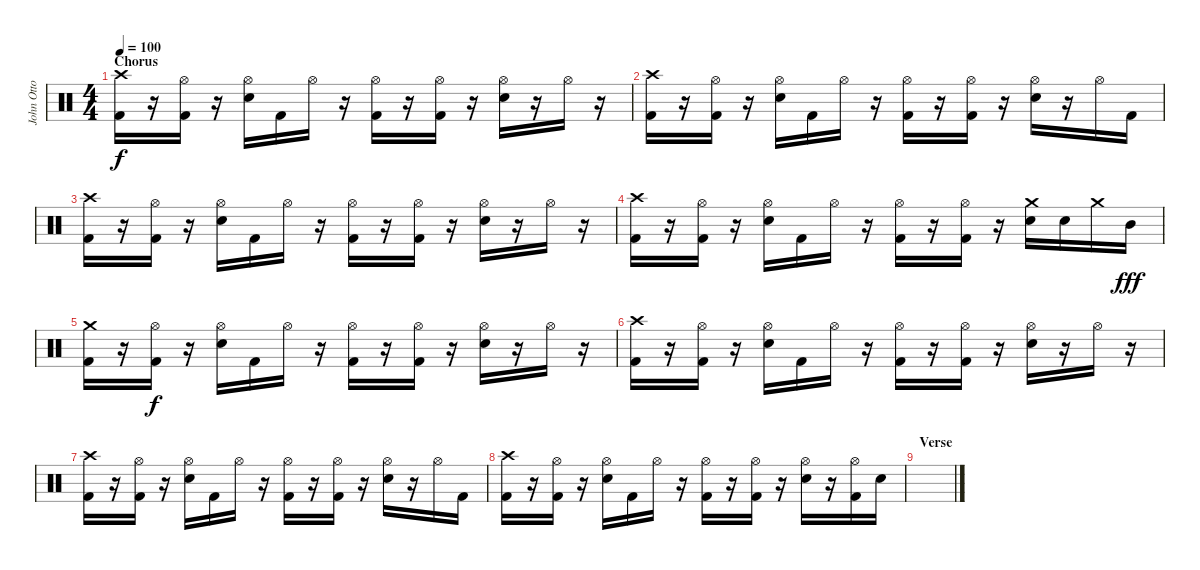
\track ("John Otto - Drums" "John Otto ") {instrument percussion}
\staff {score}
\articulation defaults
\ts (4 4)
\section ("" "Chorus")
\tempo 100
\clef neutral
\ks c
("Crash high (hit)" "Kick (hit) 2").16{dy f} r.16 ("Hi-Hat (open)" "Kick (hit) 2").16 r.16 ("Hi-Hat (open)" "Electric Snare (hit)").16 "Kick (hit) 2".16 "Hi-Hat (open)".16 r.16 ("Hi-Hat (open)" "Kick (hit) 2").16 r.16 ("Hi-Hat (open)" "Kick (hit) 2").16 r.16 ("Hi-Hat (open)" "Electric Snare (hit)").16 r.16 "Hi-Hat (open)".16 r.16 |
("Crash high (hit)" "Kick (hit) 2").16 r.16 ("Hi-Hat (open)" "Kick (hit) 2").16 r.16 ("Hi-Hat (open)" "Electric Snare (hit)").16 "Kick (hit) 2".16 "Hi-Hat (open)".16 r.16 ("Hi-Hat (open)" "Kick (hit) 2").16 r.16 ("Hi-Hat (open)" "Kick (hit) 2").16 r.16 ("Hi-Hat (open)" "Electric Snare (hit)").16 r.16 "Hi-Hat (open)".16 "Kick (hit) 2".16 |
("Crash high (hit)" "Kick (hit) 2").16 r.16 ("Hi-Hat (open)" "Kick (hit) 2").16 r.16 ("Hi-Hat (open)" "Electric Snare (hit)").16 "Kick (hit) 2".16 "Hi-Hat (open)".16 r.16 ("Hi-Hat (open)" "Kick (hit) 2").16 r.16 ("Hi-Hat (open)" "Kick (hit) 2").16 r.16 ("Hi-Hat (open)" "Electric Snare (hit)").16 r.16 "Hi-Hat (open)".16 r.16 |
("Crash high (hit)" "Kick (hit) 2").16 r.16 ("Hi-Hat (open)" "Kick (hit) 2").16 r.16 ("Hi-Hat (open)" "Electric Snare (hit)").16 "Kick (hit) 2".16 "Hi-Hat (open)".16 r.16 ("Hi-Hat (open)" "Kick (hit) 2").16 r.16 ("Hi-Hat (open)" "Kick (hit) 2").16 r.16 ("Crash medium (hit)" "Electric Snare (hit)").16 "Electric Snare (hit)".16 "Crash medium (hit)".16 "Mid Tom (hit)".16{dy fff} |
("Crash medium (hit)" "Kick (hit) 2").16 r.16 ("Hi-Hat (open)" "Kick (hit) 2").16{dy f} r.16 ("Hi-Hat (open)" "Electric Snare (hit)").16 "Kick (hit) 2".16 "Hi-Hat (open)".16 r.16 ("Hi-Hat (open)" "Kick (hit) 2").16 r.16 ("Hi-Hat (open)" "Kick (hit) 2").16 r.16 ("Hi-Hat (open)" "Electric Snare (hit)").16 r.16 "Hi-Hat (open)".16 r.16 |
("Crash high (hit)" "Kick (hit) 2").16 r.16 ("Hi-Hat (open)" "Kick (hit) 2").16 r.16 ("Hi-Hat (open)" "Electric Snare (hit)").16 "Kick (hit) 2".16 "Hi-Hat (open)".16 r.16 ("Hi-Hat (open)" "Kick (hit) 2").16 r.16 ("Hi-Hat (open)" "Kick (hit) 2").16 r.16 ("Hi-Hat (open)" "Electric Snare (hit)").16 r.16 "Hi-Hat (open)".16 r.16 |
("Crash high (hit)" "Kick (hit) 2").16 r.16 ("Hi-Hat (open)" "Kick (hit) 2").16 r.16 ("Hi-Hat (open)" "Electric Snare (hit)").16 "Kick (hit) 2".16 "Hi-Hat (open)".16 r.16 ("Hi-Hat (open)" "Kick (hit) 2").16 r.16 ("Hi-Hat (open)" "Kick (hit) 2").16 r.16 ("Hi-Hat (open)" "Electric Snare (hit)").16 r.16 "Hi-Hat (open)".16 "Kick (hit) 2".16 |
("Crash high (hit)" "Kick (hit) 2").16 r.16 ("Hi-Hat (open)" "Kick (hit) 2").16 r.16 ("Hi-Hat (open)" "Electric Snare (hit)").16 "Kick (hit) 2".16 "Hi-Hat (open)".16 r.16 ("Hi-Hat (open)" "Kick (hit) 2").16 r.16 ("Hi-Hat (open)" "Kick (hit) 2").16 r.16 ("Hi-Hat (open)" "Electric Snare (hit)").16 r.16 ("Hi-Hat (open)" "Kick (hit) 2").16 "Electric Snare (hit)".16 |
\section ("" "Verse")
